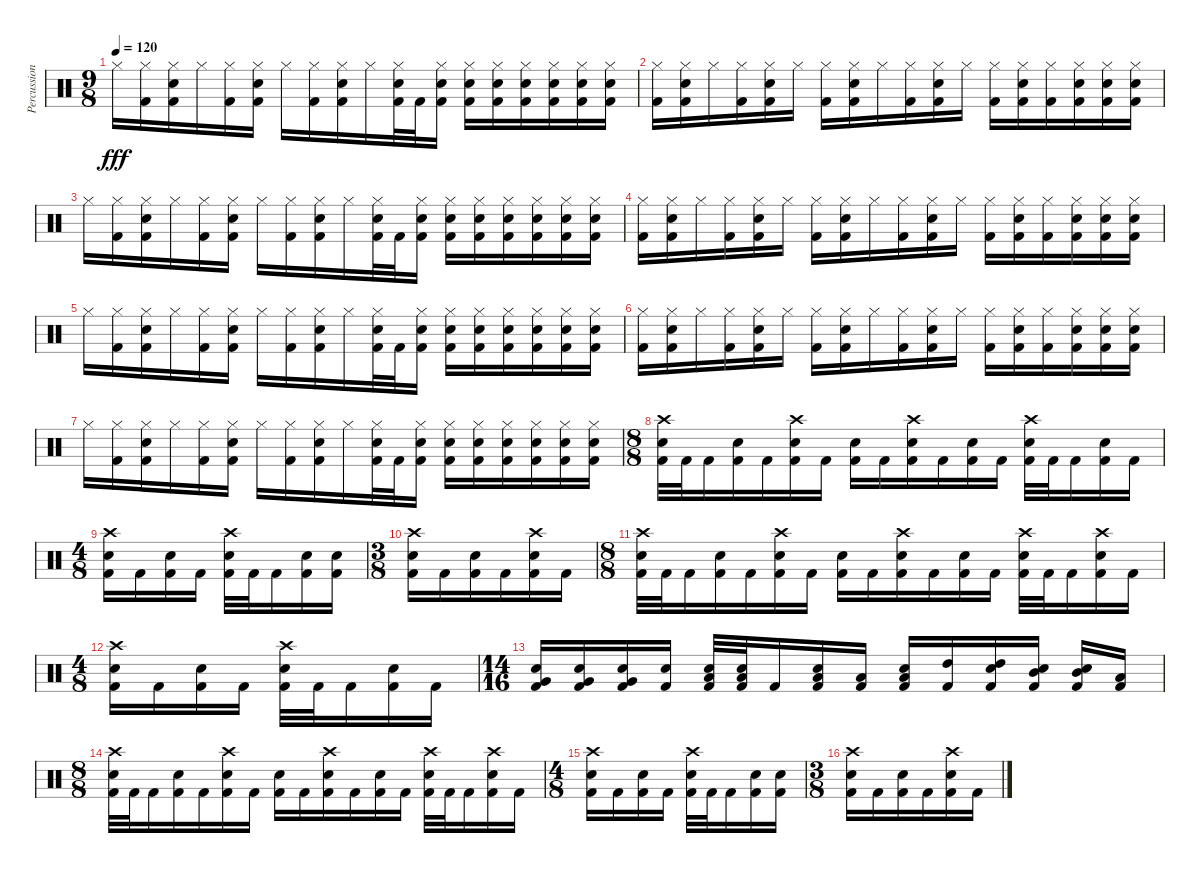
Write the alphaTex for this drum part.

\track ("Percussion" "Percussion") {instrument percussion}
\staff {score}
\articulation defaults
\ts (9 8)
\tempo 120
\clef neutral
\ks c "Hi-Hat (closed)".16{dy fff}
("Hi-Hat (closed)" "Kick (hit) 2").16 ("Hi-Hat (closed)" "Snare (hit) 2" "Kick (hit) 2").16 "Hi-Hat (closed)".16 ("Hi-Hat (closed)" "Kick (hit) 2").16 ("Hi-Hat (closed)" "Snare (hit) 2" "Kick (hit) 2").16 "Hi-Hat (closed)".16 ("Hi-Hat (closed)" "Kick (hit) 2").16 ("Hi-Hat (closed)" "Snare (hit) 2" "Kick (hit) 2").16 "Hi-Hat (closed)".16 ("Hi-Hat (closed)" "Snare (hit) 2" "Kick (hit) 2").32 "Kick (hit) 2".32 ("Hi-Hat (closed)" "Snare (hit) 2" "Kick (hit) 2").16 ("Hi-Hat (closed)" "Snare (hit) 2" "Kick (hit) 2").16 ("Hi-Hat (closed)" "Snare (hit) 2" "Kick (hit) 2").16 ("Hi-Hat (closed)" "Snare (hit) 2" "Kick (hit) 2").16 ("Hi-Hat (closed)" "Snare (hit) 2" "Kick (hit) 2").16 ("Hi-Hat (closed)" "Snare (hit) 2" "Kick (hit) 2").16 ("Hi-Hat (closed)" "Snare (hit) 2" "Kick (hit) 2").16 |
("Hi-Hat (closed)" "Kick (hit) 2").16 ("Hi-Hat (closed)" "Snare (hit) 2" "Kick (hit) 2").16 "Hi-Hat (closed)".16 ("Hi-Hat (closed)" "Kick (hit) 2").16 ("Hi-Hat (closed)" "Snare (hit) 2" "Kick (hit) 2").16 "Hi-Hat (closed)".16 ("Hi-Hat (closed)" "Kick (hit) 2").16 ("Hi-Hat (closed)" "Snare (hit) 2" "Kick (hit) 2").16 "Hi-Hat (closed)".16 ("Hi-Hat (closed)" "Kick (hit) 2").16 ("Hi-Hat (closed)" "Snare (hit) 2" "Kick (hit) 2").16 "Hi-Hat (closed)".16 ("Hi-Hat (closed)" "Kick (hit) 2").16 ("Hi-Hat (closed)" "Snare (hit) 2" "Kick (hit) 2").16 ("Hi-Hat (closed)" "Kick (hit) 2").16 ("Hi-Hat (closed)" "Snare (hit) 2" "Kick (hit) 2").16 ("Hi-Hat (closed)" "Snare (hit) 2" "Kick (hit) 2").16 ("Hi-Hat (closed)" "Snare (hit) 2" "Kick (hit) 2").16 |
"Hi-Hat (closed)".16 ("Hi-Hat (closed)" "Kick (hit) 2").16 ("Hi-Hat (closed)" "Snare (hit) 2" "Kick (hit) 2").16 "Hi-Hat (closed)".16 ("Hi-Hat (closed)" "Kick (hit) 2").16 ("Hi-Hat (closed)" "Snare (hit) 2" "Kick (hit) 2").16 "Hi-Hat (closed)".16 ("Hi-Hat (closed)" "Kick (hit) 2").16 ("Hi-Hat (closed)" "Snare (hit) 2" "Kick (hit) 2").16 "Hi-Hat (closed)".16 ("Hi-Hat (closed)" "Snare (hit) 2" "Kick (hit) 2").32 "Kick (hit) 2".32 ("Hi-Hat (closed)" "Snare (hit) 2" "Kick (hit) 2").16 ("Hi-Hat (closed)" "Snare (hit) 2" "Kick (hit) 2").16 ("Hi-Hat (closed)" "Snare (hit) 2" "Kick (hit) 2").16 ("Hi-Hat (closed)" "Snare (hit) 2" "Kick (hit) 2").16 ("Hi-Hat (closed)" "Snare (hit) 2" "Kick (hit) 2").16 ("Hi-Hat (closed)" "Snare (hit) 2" "Kick (hit) 2").16 ("Hi-Hat (closed)" "Snare (hit) 2" "Kick (hit) 2").16 |
("Hi-Hat (closed)" "Kick (hit) 2").16 ("Hi-Hat (closed)" "Snare (hit) 2" "Kick (hit) 2").16 "Hi-Hat (closed)".16 ("Hi-Hat (closed)" "Kick (hit) 2").16 ("Hi-Hat (closed)" "Snare (hit) 2" "Kick (hit) 2").16 "Hi-Hat (closed)".16 ("Hi-Hat (closed)" "Kick (hit) 2").16 ("Hi-Hat (closed)" "Snare (hit) 2" "Kick (hit) 2").16 "Hi-Hat (closed)".16 ("Hi-Hat (closed)" "Kick (hit) 2").16 ("Hi-Hat (closed)" "Snare (hit) 2" "Kick (hit) 2").16 "Hi-Hat (closed)".16 ("Hi-Hat (closed)" "Kick (hit) 2").16 ("Hi-Hat (closed)" "Snare (hit) 2" "Kick (hit) 2").16 ("Hi-Hat (closed)" "Kick (hit) 2").16 ("Hi-Hat (closed)" "Snare (hit) 2" "Kick (hit) 2").16 ("Hi-Hat (closed)" "Snare (hit) 2" "Kick (hit) 2").16 ("Hi-Hat (closed)" "Snare (hit) 2" "Kick (hit) 2").16 |
"Hi-Hat (closed)".16 ("Hi-Hat (closed)" "Kick (hit) 2").16 ("Hi-Hat (closed)" "Snare (hit) 2" "Kick (hit) 2").16 "Hi-Hat (closed)".16 ("Hi-Hat (closed)" "Kick (hit) 2").16 ("Hi-Hat (closed)" "Snare (hit) 2" "Kick (hit) 2").16 "Hi-Hat (closed)".16 ("Hi-Hat (closed)" "Kick (hit) 2").16 ("Hi-Hat (closed)" "Snare (hit) 2" "Kick (hit) 2").16 "Hi-Hat (closed)".16 ("Hi-Hat (closed)" "Snare (hit) 2" "Kick (hit) 2").32 "Kick (hit) 2".32 ("Hi-Hat (closed)" "Snare (hit) 2" "Kick (hit) 2").16 ("Hi-Hat (closed)" "Snare (hit) 2" "Kick (hit) 2").16 ("Hi-Hat (closed)" "Snare (hit) 2" "Kick (hit) 2").16 ("Hi-Hat (closed)" "Snare (hit) 2" "Kick (hit) 2").16 ("Hi-Hat (closed)" "Snare (hit) 2" "Kick (hit) 2").16 ("Hi-Hat (closed)" "Snare (hit) 2" "Kick (hit) 2").16 ("Hi-Hat (closed)" "Snare (hit) 2" "Kick (hit) 2").16 |
("Hi-Hat (closed)" "Kick (hit) 2").16 ("Hi-Hat (closed)" "Snare (hit) 2" "Kick (hit) 2").16 "Hi-Hat (closed)".16 ("Hi-Hat (closed)" "Kick (hit) 2").16 ("Hi-Hat (closed)" "Snare (hit) 2" "Kick (hit) 2").16 "Hi-Hat (closed)".16 ("Hi-Hat (closed)" "Kick (hit) 2").16 ("Hi-Hat (closed)" "Snare (hit) 2" "Kick (hit) 2").16 "Hi-Hat (closed)".16 ("Hi-Hat (closed)" "Kick (hit) 2").16 ("Hi-Hat (closed)" "Snare (hit) 2" "Kick (hit) 2").16 "Hi-Hat (closed)".16 ("Hi-Hat (closed)" "Kick (hit) 2").16 ("Hi-Hat (closed)" "Snare (hit) 2" "Kick (hit) 2").16 ("Hi-Hat (closed)" "Kick (hit) 2").16 ("Hi-Hat (closed)" "Snare (hit) 2" "Kick (hit) 2").16 ("Hi-Hat (closed)" "Snare (hit) 2" "Kick (hit) 2").16 ("Hi-Hat (closed)" "Snare (hit) 2" "Kick (hit) 2").16 |
"Hi-Hat (closed)".16 ("Hi-Hat (closed)" "Kick (hit) 2").16 ("Hi-Hat (closed)" "Snare (hit) 2" "Kick (hit) 2").16 "Hi-Hat (closed)".16 ("Hi-Hat (closed)" "Kick (hit) 2").16 ("Hi-Hat (closed)" "Snare (hit) 2" "Kick (hit) 2").16 "Hi-Hat (closed)".16 ("Hi-Hat (closed)" "Kick (hit) 2").16 ("Hi-Hat (closed)" "Snare (hit) 2" "Kick (hit) 2").16 "Hi-Hat (closed)".16 ("Hi-Hat (closed)" "Snare (hit) 2" "Kick (hit) 2").32 "Kick (hit) 2".32 ("Hi-Hat (closed)" "Snare (hit) 2" "Kick (hit) 2").16 ("Hi-Hat (closed)" "Snare (hit) 2" "Kick (hit) 2").16 ("Hi-Hat (closed)" "Snare (hit) 2" "Kick (hit) 2").16 ("Hi-Hat (closed)" "Snare (hit) 2" "Kick (hit) 2").16 ("Hi-Hat (closed)" "Snare (hit) 2" "Kick (hit) 2").16 ("Hi-Hat (closed)" "Snare (hit) 2" "Kick (hit) 2").16 ("Hi-Hat (closed)" "Snare (hit) 2" "Kick (hit) 2").16 |
\ts (8 8)
("Crash high (hit)" "Snare (hit) 2" "Kick (hit) 2").32 "Kick (hit) 2".32 "Kick (hit) 2".16 ("Snare (hit) 2" "Kick (hit) 2").16 "Kick (hit) 2".16 ("Crash high (hit)" "Snare (hit) 2" "Kick (hit) 2").16 "Kick (hit) 2".16 ("Snare (hit) 2" "Kick (hit) 2").16 "Kick (hit) 2".16 ("Crash high (hit)" "Snare (hit) 2" "Kick (hit) 2").16 "Kick (hit) 2".16 ("Snare (hit) 2" "Kick (hit) 2").16 "Kick (hit) 2".16 ("Crash high (hit)" "Snare (hit) 2" "Kick (hit) 2").32 "Kick (hit) 2".32 "Kick (hit) 2".16 ("Snare (hit) 2" "Kick (hit) 2").16 "Kick (hit) 2".16 |
\ts (4 8)
("Crash high (hit)" "Snare (hit) 2" "Kick (hit) 2").16 "Kick (hit) 2".16 ("Snare (hit) 2" "Kick (hit) 2").16 "Kick (hit) 2".16 ("Crash high (hit)" "Snare (hit) 2" "Kick (hit) 2").32 "Kick (hit) 2".32 "Kick (hit) 2".16 ("Snare (hit) 2" "Kick (hit) 2").16 ("Snare (hit) 2" "Kick (hit) 2").16 |
\ts (3 8)
("Crash high (hit)" "Snare (hit) 2" "Kick (hit) 2").16 "Kick (hit) 2".16 ("Snare (hit) 2" "Kick (hit) 2").16 "Kick (hit) 2".16 ("Crash high (hit)" "Snare (hit) 2" "Kick (hit) 2").16 "Kick (hit) 2".16 |
\ts (8 8)
("Crash high (hit)" "Snare (hit) 2" "Kick (hit) 2").32 "Kick (hit) 2".32 "Kick (hit) 2".16 ("Snare (hit) 2" "Kick (hit) 2").16 "Kick (hit) 2".16 ("Crash high (hit)" "Snare (hit) 2" "Kick (hit) 2").16 "Kick (hit) 2".16 ("Snare (hit) 2" "Kick (hit) 2").16 "Kick (hit) 2".16 ("Crash high (hit)" "Snare (hit) 2" "Kick (hit) 2").16 "Kick (hit) 2".16 ("Snare (hit) 2" "Kick (hit) 2").16 "Kick (hit) 2".16 ("Crash high (hit)" "Snare (hit) 2" "Kick (hit) 2").32 "Kick (hit) 2".32 "Kick (hit) 2".16 ("Crash high (hit)" "Snare (hit) 2" "Kick (hit) 2").16 "Kick (hit) 2".16 |
\ts (4 8)
("Crash high (hit)" "Snare (hit) 2" "Kick (hit) 2").16 "Kick (hit) 2".16 ("Snare (hit) 2" "Kick (hit) 2").16 "Kick (hit) 2".16 ("Crash high (hit)" "Snare (hit) 2" "Kick (hit) 2").32 "Kick (hit) 2".32 "Kick (hit) 2".16 ("Snare (hit) 2" "Kick (hit) 2").16 "Kick (hit) 2".16 |
\ts (14 16)
("Very Low Tom (hit)" "Snare (hit) 2" "Kick (hit) 2").16 ("Very Low Tom (hit)" "Snare (hit) 2" "Kick (hit) 2").16 ("Very Low Tom (hit)" "Snare (hit) 2" "Kick (hit) 2").16 ("Snare (hit) 2" "Kick (hit) 2").16 ("Low Floor Tom (hit)" "Snare (hit) 2" "Kick (hit) 2").32 ("Low Floor Tom (hit)" "Snare (hit) 2" "Kick (hit) 2").32 "Kick (hit) 2".16 ("Low Tom (hit)" "Snare (hit) 2" "Kick (hit) 2").16 ("Low Tom (hit)" "Kick (hit) 2").16 ("Low Tom (hit)" "Snare (hit) 2" "Kick (hit) 2").16 ("High Tom (hit)" "Kick (hit) 2").16 ("High Tom (hit)" "Snare (hit) 2" "Kick (hit) 2").16 ("Mid Tom (hit)" "Snare (hit) 2" "Kick (hit) 2").16 ("Mid Tom (hit)" "Snare (hit) 2" "Kick (hit) 2").16 ("Low Tom (hit)" "Kick (hit) 2").16 |
\ts (8 8)
("Crash high (hit)" "Snare (hit) 2" "Kick (hit) 2").32 "Kick (hit) 2".32 "Kick (hit) 2".16 ("Snare (hit) 2" "Kick (hit) 2").16 "Kick (hit) 2".16 ("Crash high (hit)" "Snare (hit) 2" "Kick (hit) 2").16 "Kick (hit) 2".16 ("Snare (hit) 2" "Kick (hit) 2").16 "Kick (hit) 2".16 ("Crash high (hit)" "Snare (hit) 2" "Kick (hit) 2").16 "Kick (hit) 2".16 ("Snare (hit) 2" "Kick (hit) 2").16 "Kick (hit) 2".16 ("Crash high (hit)" "Snare (hit) 2" "Kick (hit) 2").32 "Kick (hit) 2".32 "Kick (hit) 2".16 ("Crash high (hit)" "Snare (hit) 2" "Kick (hit) 2").16 "Kick (hit) 2".16 |
\ts (4 8)
("Crash high (hit)" "Snare (hit) 2" "Kick (hit) 2").16 "Kick (hit) 2".16 ("Snare (hit) 2" "Kick (hit) 2").16 "Kick (hit) 2".16 ("Crash high (hit)" "Snare (hit) 2" "Kick (hit) 2").32 "Kick (hit) 2".32 "Kick (hit) 2".16 ("Snare (hit) 2" "Kick (hit) 2").16 ("Snare (hit) 2" "Kick (hit) 2").16 |
\ts (3 8)
("Crash high (hit)" "Snare (hit) 2" "Kick (hit) 2").16 "Kick (hit) 2".16 ("Snare (hit) 2" "Kick (hit) 2").16 "Kick (hit) 2".16 ("Crash high (hit)" "Snare (hit) 2" "Kick (hit) 2").16 "Kick (hit) 2".16
